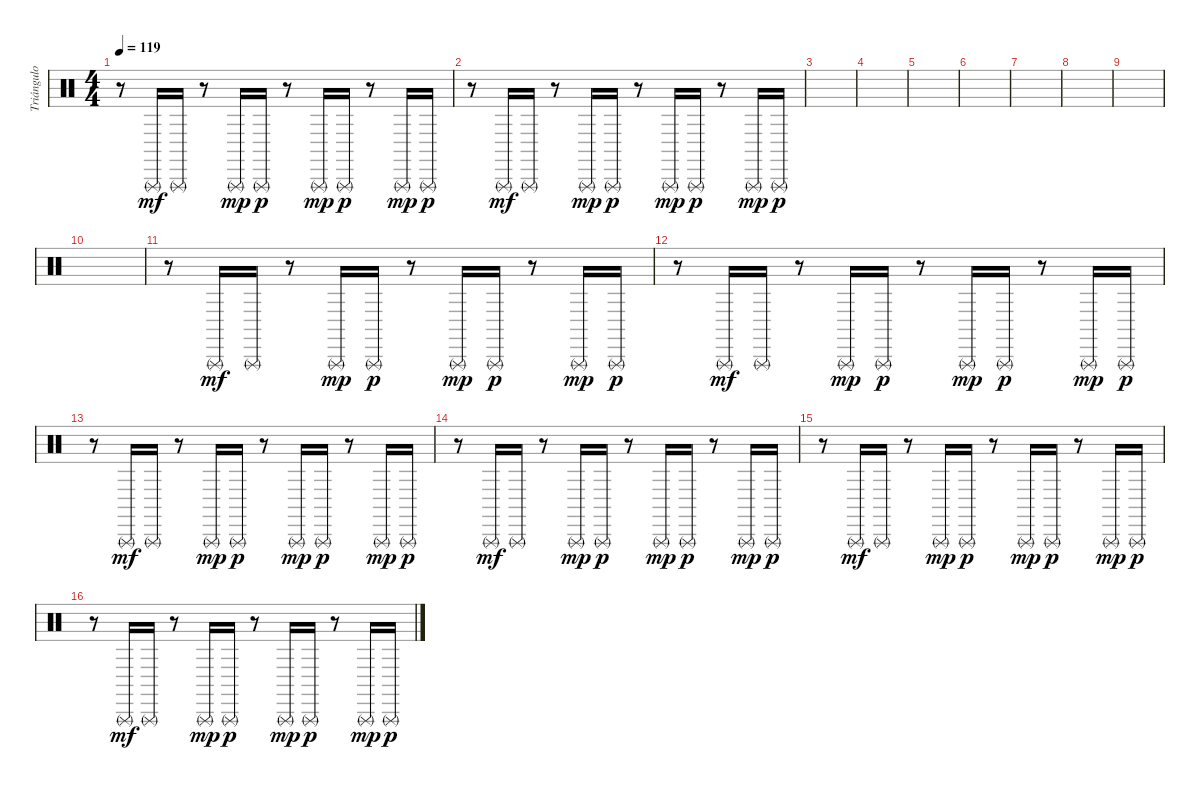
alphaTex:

\track ("Triángulo" "Triángulo") {instrument percussion}
\staff {score}
\articulation defaults
\ts (4 4)
\tempo 119
\clef neutral
\ks c
r.8{dy p} "Triangle (rnute)".16{dy mf} "Triangle (rnute)".16 r.8 "Triangle (rnute)".16{dy mp} "Triangle (rnute)".16{dy p} r.8 "Triangle (rnute)".16{dy mp} "Triangle (rnute)".16{dy p} r.8 "Triangle (rnute)".16{dy mp} "Triangle (rnute)".16{dy p} |
r.8 "Triangle (rnute)".16{dy mf} "Triangle (rnute)".16 r.8 "Triangle (rnute)".16{dy mp} "Triangle (rnute)".16{dy p} r.8 "Triangle (rnute)".16{dy mp} "Triangle (rnute)".16{dy p} r.8 "Triangle (rnute)".16{dy mp} "Triangle (rnute)".16{dy p} |
|
|
|
|
|
|
|
|
r.8 "Triangle (rnute)".16{dy mf} "Triangle (rnute)".16 r.8 "Triangle (rnute)".16{dy mp} "Triangle (rnute)".16{dy p} r.8 "Triangle (rnute)".16{dy mp} "Triangle (rnute)".16{dy p} r.8 "Triangle (rnute)".16{dy mp} "Triangle (rnute)".16{dy p} |
r.8 "Triangle (rnute)".16{dy mf} "Triangle (rnute)".16 r.8 "Triangle (rnute)".16{dy mp} "Triangle (rnute)".16{dy p} r.8 "Triangle (rnute)".16{dy mp} "Triangle (rnute)".16{dy p} r.8 "Triangle (rnute)".16{dy mp} "Triangle (rnute)".16{dy p} |
r.8 "Triangle (rnute)".16{dy mf} "Triangle (rnute)".16 r.8 "Triangle (rnute)".16{dy mp} "Triangle (rnute)".16{dy p} r.8 "Triangle (rnute)".16{dy mp} "Triangle (rnute)".16{dy p} r.8 "Triangle (rnute)".16{dy mp} "Triangle (rnute)".16{dy p} |
r.8 "Triangle (rnute)".16{dy mf} "Triangle (rnute)".16 r.8 "Triangle (rnute)".16{dy mp} "Triangle (rnute)".16{dy p} r.8 "Triangle (rnute)".16{dy mp} "Triangle (rnute)".16{dy p} r.8 "Triangle (rnute)".16{dy mp} "Triangle (rnute)".16{dy p} |
r.8 "Triangle (rnute)".16{dy mf} "Triangle (rnute)".16 r.8 "Triangle (rnute)".16{dy mp} "Triangle (rnute)".16{dy p} r.8 "Triangle (rnute)".16{dy mp} "Triangle (rnute)".16{dy p} r.8 "Triangle (rnute)".16{dy mp} "Triangle (rnute)".16{dy p} |
r.8 "Triangle (rnute)".16{dy mf} "Triangle (rnute)".16 r.8 "Triangle (rnute)".16{dy mp} "Triangle (rnute)".16{dy p} r.8 "Triangle (rnute)".16{dy mp} "Triangle (rnute)".16{dy p} r.8 "Triangle (rnute)".16{dy mp} "Triangle (rnute)".16{dy p}
